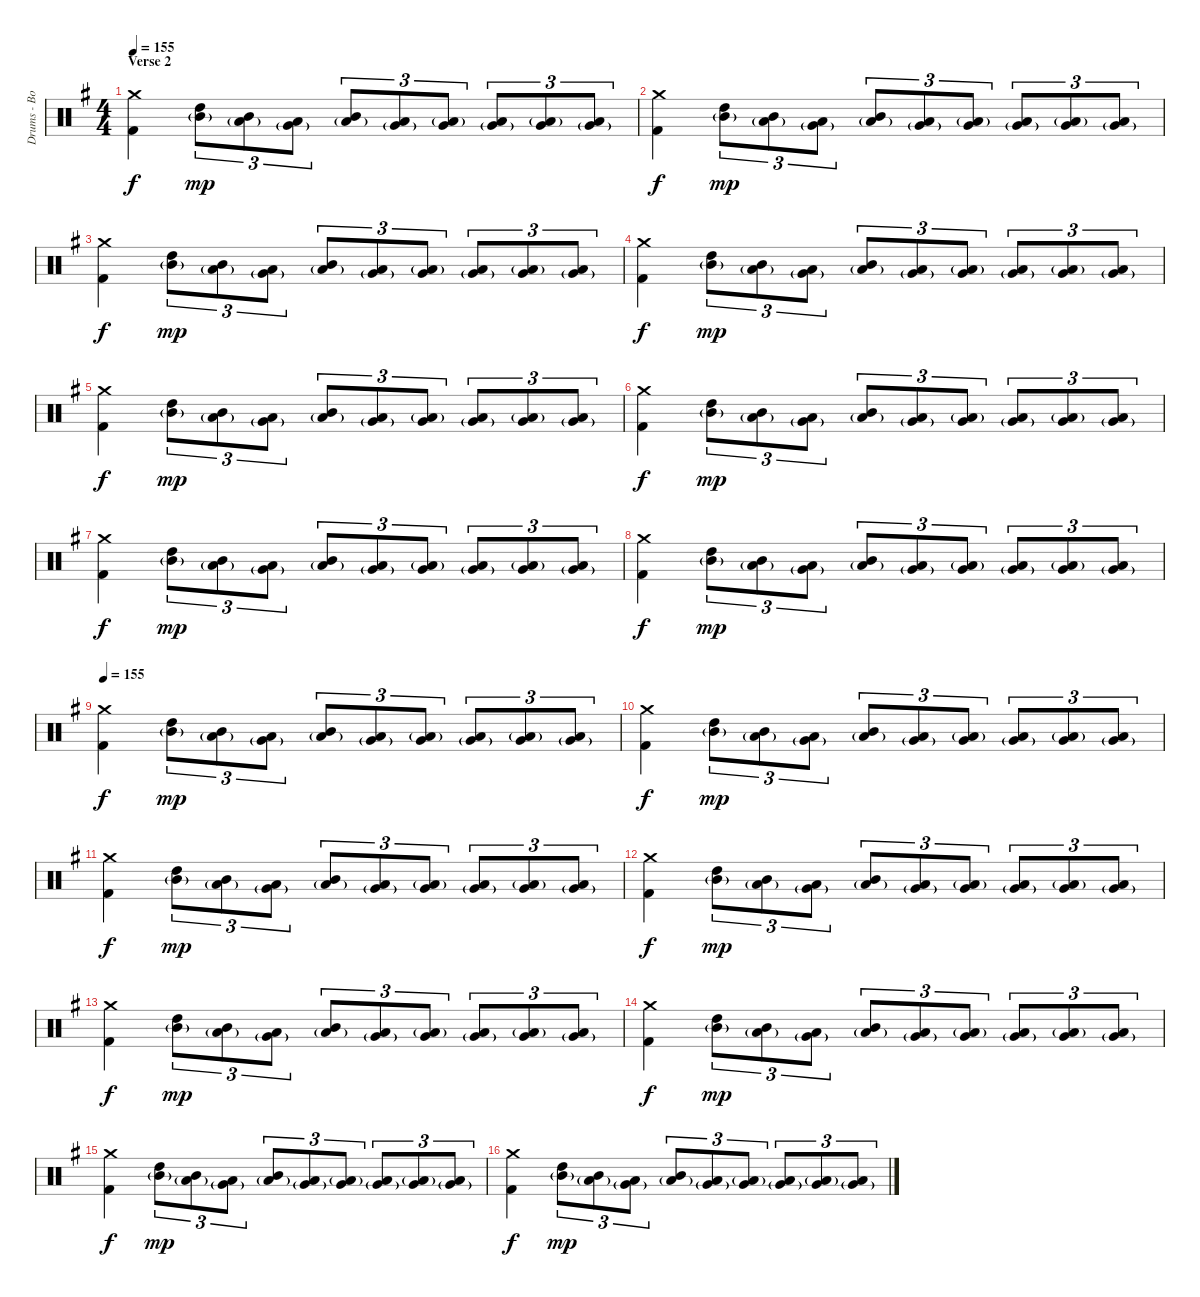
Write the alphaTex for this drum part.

\track ("Drums - Bob Bryar" "Drums - Bo") {instrument percussion}
\staff {score}
\articulation defaults
\ts (4 4)
\section ("" "Verse 2")
\tempo 155
\clef neutral
\ks eminor
("Kick (hit) 2" "Crash medium (hit)").4{dy f} ("High Tom (hit)" "Mid Tom (hit)"{g}).8{tu (3 2) dy mp} ("Mid Tom (hit)" "Low Tom (hit)"{g}).8{tu (3 2)} ("Low Tom (hit)" "Very Low Tom (hit)"{g}).8{tu (3 2)} ("Mid Tom (hit)" "Low Tom (hit)"{g}).8{tu (3 2)} ("Low Tom (hit)" "Very Low Tom (hit)"{g}).8{tu (3 2)} ("Very Low Tom (hit)" "Low Floor Tom (hit)"{g}).8{tu (3 2)} ("Low Tom (hit)" "Very Low Tom (hit)"{g}).8{tu (3 2)} ("Very Low Tom (hit)" "Low Floor Tom (hit)"{g}).8{tu (3 2)} ("Low Floor Tom (hit)" "Very Low Tom (hit)"{g}).8{tu (3 2)} |
("Kick (hit) 2" "Crash medium (hit)").4{dy f} ("High Tom (hit)" "Mid Tom (hit)"{g}).8{tu (3 2) dy mp} ("Mid Tom (hit)" "Low Tom (hit)"{g}).8{tu (3 2)} ("Low Tom (hit)" "Very Low Tom (hit)"{g}).8{tu (3 2)} ("Mid Tom (hit)" "Low Tom (hit)"{g}).8{tu (3 2)} ("Low Tom (hit)" "Very Low Tom (hit)"{g}).8{tu (3 2)} ("Very Low Tom (hit)" "Low Floor Tom (hit)"{g}).8{tu (3 2)} ("Low Tom (hit)" "Very Low Tom (hit)"{g}).8{tu (3 2)} ("Very Low Tom (hit)" "Low Floor Tom (hit)"{g}).8{tu (3 2)} ("Low Floor Tom (hit)" "Very Low Tom (hit)"{g}).8{tu (3 2)} |
("Kick (hit) 2" "Crash medium (hit)").4{dy f} ("High Tom (hit)" "Mid Tom (hit)"{g}).8{tu (3 2) dy mp} ("Mid Tom (hit)" "Low Tom (hit)"{g}).8{tu (3 2)} ("Low Tom (hit)" "Very Low Tom (hit)"{g}).8{tu (3 2)} ("Mid Tom (hit)" "Low Tom (hit)"{g}).8{tu (3 2)} ("Low Tom (hit)" "Very Low Tom (hit)"{g}).8{tu (3 2)} ("Very Low Tom (hit)" "Low Floor Tom (hit)"{g}).8{tu (3 2)} ("Low Tom (hit)" "Very Low Tom (hit)"{g}).8{tu (3 2)} ("Very Low Tom (hit)" "Low Floor Tom (hit)"{g}).8{tu (3 2)} ("Low Floor Tom (hit)" "Very Low Tom (hit)"{g}).8{tu (3 2)} |
("Kick (hit) 2" "Crash medium (hit)").4{dy f} ("High Tom (hit)" "Mid Tom (hit)"{g}).8{tu (3 2) dy mp} ("Mid Tom (hit)" "Low Tom (hit)"{g}).8{tu (3 2)} ("Low Tom (hit)" "Very Low Tom (hit)"{g}).8{tu (3 2)} ("Mid Tom (hit)" "Low Tom (hit)"{g}).8{tu (3 2)} ("Low Tom (hit)" "Very Low Tom (hit)"{g}).8{tu (3 2)} ("Very Low Tom (hit)" "Low Floor Tom (hit)"{g}).8{tu (3 2)} ("Low Tom (hit)" "Very Low Tom (hit)"{g}).8{tu (3 2)} ("Very Low Tom (hit)" "Low Floor Tom (hit)"{g}).8{tu (3 2)} ("Low Floor Tom (hit)" "Very Low Tom (hit)"{g}).8{tu (3 2)} |
("Kick (hit) 2" "Crash medium (hit)").4{dy f} ("High Tom (hit)" "Mid Tom (hit)"{g}).8{tu (3 2) dy mp} ("Mid Tom (hit)" "Low Tom (hit)"{g}).8{tu (3 2)} ("Low Tom (hit)" "Very Low Tom (hit)"{g}).8{tu (3 2)} ("Mid Tom (hit)" "Low Tom (hit)"{g}).8{tu (3 2)} ("Low Tom (hit)" "Very Low Tom (hit)"{g}).8{tu (3 2)} ("Very Low Tom (hit)" "Low Floor Tom (hit)"{g}).8{tu (3 2)} ("Low Tom (hit)" "Very Low Tom (hit)"{g}).8{tu (3 2)} ("Very Low Tom (hit)" "Low Floor Tom (hit)"{g}).8{tu (3 2)} ("Low Floor Tom (hit)" "Very Low Tom (hit)"{g}).8{tu (3 2)} |
("Kick (hit) 2" "Crash medium (hit)").4{dy f} ("High Tom (hit)" "Mid Tom (hit)"{g}).8{tu (3 2) dy mp} ("Mid Tom (hit)" "Low Tom (hit)"{g}).8{tu (3 2)} ("Low Tom (hit)" "Very Low Tom (hit)"{g}).8{tu (3 2)} ("Mid Tom (hit)" "Low Tom (hit)"{g}).8{tu (3 2)} ("Low Tom (hit)" "Very Low Tom (hit)"{g}).8{tu (3 2)} ("Very Low Tom (hit)" "Low Floor Tom (hit)"{g}).8{tu (3 2)} ("Low Tom (hit)" "Very Low Tom (hit)"{g}).8{tu (3 2)} ("Very Low Tom (hit)" "Low Floor Tom (hit)"{g}).8{tu (3 2)} ("Low Floor Tom (hit)" "Very Low Tom (hit)"{g}).8{tu (3 2)} |
("Kick (hit) 2" "Crash medium (hit)").4{dy f} ("High Tom (hit)" "Mid Tom (hit)"{g}).8{tu (3 2) dy mp} ("Mid Tom (hit)" "Low Tom (hit)"{g}).8{tu (3 2)} ("Low Tom (hit)" "Very Low Tom (hit)"{g}).8{tu (3 2)} ("Mid Tom (hit)" "Low Tom (hit)"{g}).8{tu (3 2)} ("Low Tom (hit)" "Very Low Tom (hit)"{g}).8{tu (3 2)} ("Very Low Tom (hit)" "Low Floor Tom (hit)"{g}).8{tu (3 2)} ("Low Tom (hit)" "Very Low Tom (hit)"{g}).8{tu (3 2)} ("Very Low Tom (hit)" "Low Floor Tom (hit)"{g}).8{tu (3 2)} ("Low Floor Tom (hit)" "Very Low Tom (hit)"{g}).8{tu (3 2)} |
("Kick (hit) 2" "Crash medium (hit)").4{dy f} ("High Tom (hit)" "Mid Tom (hit)"{g}).8{tu (3 2) dy mp} ("Mid Tom (hit)" "Low Tom (hit)"{g}).8{tu (3 2)} ("Low Tom (hit)" "Very Low Tom (hit)"{g}).8{tu (3 2)} ("Mid Tom (hit)" "Low Tom (hit)"{g}).8{tu (3 2)} ("Low Tom (hit)" "Very Low Tom (hit)"{g}).8{tu (3 2)} ("Very Low Tom (hit)" "Low Floor Tom (hit)"{g}).8{tu (3 2)} ("Low Tom (hit)" "Very Low Tom (hit)"{g}).8{tu (3 2)} ("Very Low Tom (hit)" "Low Floor Tom (hit)"{g}).8{tu (3 2)} ("Low Floor Tom (hit)" "Very Low Tom (hit)"{g}).8{tu (3 2)} |
\tempo 155
("Kick (hit) 2" "Crash medium (hit)").4{dy f} ("High Tom (hit)" "Mid Tom (hit)"{g}).8{tu (3 2) dy mp} ("Mid Tom (hit)" "Low Tom (hit)"{g}).8{tu (3 2)} ("Low Tom (hit)" "Very Low Tom (hit)"{g}).8{tu (3 2)} ("Mid Tom (hit)" "Low Tom (hit)"{g}).8{tu (3 2)} ("Low Tom (hit)" "Very Low Tom (hit)"{g}).8{tu (3 2)} ("Very Low Tom (hit)" "Low Floor Tom (hit)"{g}).8{tu (3 2)} ("Low Tom (hit)" "Very Low Tom (hit)"{g}).8{tu (3 2)} ("Very Low Tom (hit)" "Low Floor Tom (hit)"{g}).8{tu (3 2)} ("Low Floor Tom (hit)" "Very Low Tom (hit)"{g}).8{tu (3 2)} |
("Kick (hit) 2" "Crash medium (hit)").4{dy f} ("High Tom (hit)" "Mid Tom (hit)"{g}).8{tu (3 2) dy mp} ("Mid Tom (hit)" "Low Tom (hit)"{g}).8{tu (3 2)} ("Low Tom (hit)" "Very Low Tom (hit)"{g}).8{tu (3 2)} ("Mid Tom (hit)" "Low Tom (hit)"{g}).8{tu (3 2)} ("Low Tom (hit)" "Very Low Tom (hit)"{g}).8{tu (3 2)} ("Very Low Tom (hit)" "Low Floor Tom (hit)"{g}).8{tu (3 2)} ("Low Tom (hit)" "Very Low Tom (hit)"{g}).8{tu (3 2)} ("Very Low Tom (hit)" "Low Floor Tom (hit)"{g}).8{tu (3 2)} ("Low Floor Tom (hit)" "Very Low Tom (hit)"{g}).8{tu (3 2)} |
("Kick (hit) 2" "Crash medium (hit)").4{dy f} ("High Tom (hit)" "Mid Tom (hit)"{g}).8{tu (3 2) dy mp} ("Mid Tom (hit)" "Low Tom (hit)"{g}).8{tu (3 2)} ("Low Tom (hit)" "Very Low Tom (hit)"{g}).8{tu (3 2)} ("Mid Tom (hit)" "Low Tom (hit)"{g}).8{tu (3 2)} ("Low Tom (hit)" "Very Low Tom (hit)"{g}).8{tu (3 2)} ("Very Low Tom (hit)" "Low Floor Tom (hit)"{g}).8{tu (3 2)} ("Low Tom (hit)" "Very Low Tom (hit)"{g}).8{tu (3 2)} ("Very Low Tom (hit)" "Low Floor Tom (hit)"{g}).8{tu (3 2)} ("Low Floor Tom (hit)" "Very Low Tom (hit)"{g}).8{tu (3 2)} |
("Kick (hit) 2" "Crash medium (hit)").4{dy f} ("High Tom (hit)" "Mid Tom (hit)"{g}).8{tu (3 2) dy mp} ("Mid Tom (hit)" "Low Tom (hit)"{g}).8{tu (3 2)} ("Low Tom (hit)" "Very Low Tom (hit)"{g}).8{tu (3 2)} ("Mid Tom (hit)" "Low Tom (hit)"{g}).8{tu (3 2)} ("Low Tom (hit)" "Very Low Tom (hit)"{g}).8{tu (3 2)} ("Very Low Tom (hit)" "Low Floor Tom (hit)"{g}).8{tu (3 2)} ("Low Tom (hit)" "Very Low Tom (hit)"{g}).8{tu (3 2)} ("Very Low Tom (hit)" "Low Floor Tom (hit)"{g}).8{tu (3 2)} ("Low Floor Tom (hit)" "Very Low Tom (hit)"{g}).8{tu (3 2)} |
("Kick (hit) 2" "Crash medium (hit)").4{dy f} ("High Tom (hit)" "Mid Tom (hit)"{g}).8{tu (3 2) dy mp} ("Mid Tom (hit)" "Low Tom (hit)"{g}).8{tu (3 2)} ("Low Tom (hit)" "Very Low Tom (hit)"{g}).8{tu (3 2)} ("Mid Tom (hit)" "Low Tom (hit)"{g}).8{tu (3 2)} ("Low Tom (hit)" "Very Low Tom (hit)"{g}).8{tu (3 2)} ("Very Low Tom (hit)" "Low Floor Tom (hit)"{g}).8{tu (3 2)} ("Low Tom (hit)" "Very Low Tom (hit)"{g}).8{tu (3 2)} ("Very Low Tom (hit)" "Low Floor Tom (hit)"{g}).8{tu (3 2)} ("Low Floor Tom (hit)" "Very Low Tom (hit)"{g}).8{tu (3 2)} |
("Kick (hit) 2" "Crash medium (hit)").4{dy f} ("High Tom (hit)" "Mid Tom (hit)"{g}).8{tu (3 2) dy mp} ("Mid Tom (hit)" "Low Tom (hit)"{g}).8{tu (3 2)} ("Low Tom (hit)" "Very Low Tom (hit)"{g}).8{tu (3 2)} ("Mid Tom (hit)" "Low Tom (hit)"{g}).8{tu (3 2)} ("Low Tom (hit)" "Very Low Tom (hit)"{g}).8{tu (3 2)} ("Very Low Tom (hit)" "Low Floor Tom (hit)"{g}).8{tu (3 2)} ("Low Tom (hit)" "Very Low Tom (hit)"{g}).8{tu (3 2)} ("Very Low Tom (hit)" "Low Floor Tom (hit)"{g}).8{tu (3 2)} ("Low Floor Tom (hit)" "Very Low Tom (hit)"{g}).8{tu (3 2)} |
("Kick (hit) 2" "Crash medium (hit)").4{dy f} ("High Tom (hit)" "Mid Tom (hit)"{g}).8{tu (3 2) dy mp} ("Mid Tom (hit)" "Low Tom (hit)"{g}).8{tu (3 2)} ("Low Tom (hit)" "Very Low Tom (hit)"{g}).8{tu (3 2)} ("Mid Tom (hit)" "Low Tom (hit)"{g}).8{tu (3 2)} ("Low Tom (hit)" "Very Low Tom (hit)"{g}).8{tu (3 2)} ("Very Low Tom (hit)" "Low Floor Tom (hit)"{g}).8{tu (3 2)} ("Low Tom (hit)" "Very Low Tom (hit)"{g}).8{tu (3 2)} ("Very Low Tom (hit)" "Low Floor Tom (hit)"{g}).8{tu (3 2)} ("Low Floor Tom (hit)" "Very Low Tom (hit)"{g}).8{tu (3 2)} |
("Kick (hit) 2" "Crash medium (hit)").4{dy f} ("High Tom (hit)" "Mid Tom (hit)"{g}).8{tu (3 2) dy mp} ("Mid Tom (hit)" "Low Tom (hit)"{g}).8{tu (3 2)} ("Low Tom (hit)" "Very Low Tom (hit)"{g}).8{tu (3 2)} ("Mid Tom (hit)" "Low Tom (hit)"{g}).8{tu (3 2)} ("Low Tom (hit)" "Very Low Tom (hit)"{g}).8{tu (3 2)} ("Very Low Tom (hit)" "Low Floor Tom (hit)"{g}).8{tu (3 2)} ("Low Tom (hit)" "Very Low Tom (hit)"{g}).8{tu (3 2)} ("Very Low Tom (hit)" "Low Floor Tom (hit)"{g}).8{tu (3 2)} ("Low Floor Tom (hit)" "Very Low Tom (hit)"{g}).8{tu (3 2)}
